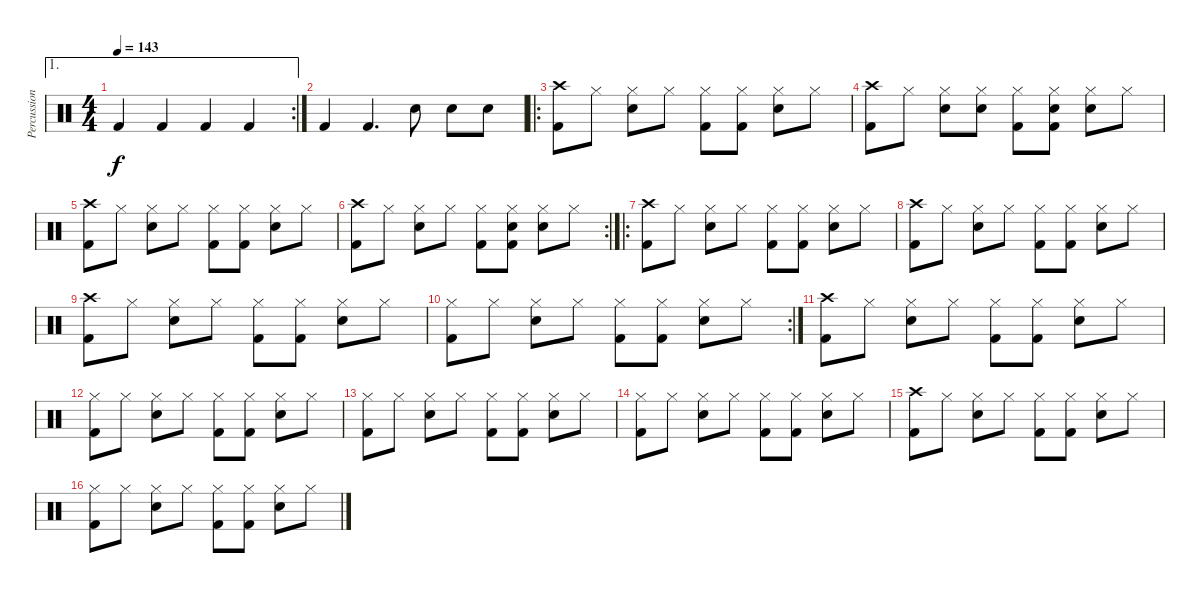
\track ("Percussion" "Percussion") {instrument percussion}
\staff {score}
\articulation defaults
\ae 1
\rc 2
\ts (4 4)
\tempo 143
\clef neutral
\ks c "Kick (hit) 2".4{dy f} "Kick (hit) 2".4 "Kick (hit) 2".4 "Kick (hit) 2".4
|
"Kick (hit) 2".4 "Kick (hit) 2".4{d} "Snare (hit) 2".8 "Snare (hit) 2".8 "Snare (hit) 2".8 |
\ro
("Crash high (hit)" "Kick (hit) 2").8 "Hi-Hat (closed)".8 ("Hi-Hat (closed)" "Snare (hit) 2").8 "Hi-Hat (closed)".8 ("Hi-Hat (closed)" "Kick (hit) 2").8 ("Hi-Hat (closed)" "Kick (hit) 2").8 ("Hi-Hat (closed)" "Snare (hit) 2").8 "Hi-Hat (closed)".8 |
("Crash high (hit)" "Kick (hit) 2").8 "Hi-Hat (closed)".8 ("Hi-Hat (closed)" "Snare (hit) 2").8 ("Hi-Hat (closed)" "Snare (hit) 2").8 ("Hi-Hat (closed)" "Kick (hit) 2").8 ("Hi-Hat (closed)" "Snare (hit) 2" "Kick (hit) 2").8 ("Hi-Hat (closed)" "Snare (hit) 2").8 "Hi-Hat (closed)".8 |
("Crash high (hit)" "Kick (hit) 2").8 "Hi-Hat (closed)".8 ("Hi-Hat (closed)" "Snare (hit) 2").8 "Hi-Hat (closed)".8 ("Hi-Hat (closed)" "Kick (hit) 2").8 ("Hi-Hat (closed)" "Kick (hit) 2").8 ("Hi-Hat (closed)" "Snare (hit) 2").8 "Hi-Hat (closed)".8 |
\rc 2
("Crash high (hit)" "Kick (hit) 2").8 "Hi-Hat (closed)".8 ("Hi-Hat (closed)" "Snare (hit) 2").8 "Hi-Hat (closed)".8 ("Hi-Hat (closed)" "Kick (hit) 2").8 ("Hi-Hat (closed)" "Snare (hit) 2" "Kick (hit) 2").8 ("Hi-Hat (closed)" "Snare (hit) 2").8 "Hi-Hat (closed)".8 |
\ro
("Crash high (hit)" "Kick (hit) 2").8 "Hi-Hat (closed)".8 ("Hi-Hat (closed)" "Snare (hit) 2").8 "Hi-Hat (closed)".8 ("Hi-Hat (closed)" "Kick (hit) 2").8 ("Hi-Hat (closed)" "Kick (hit) 2").8 ("Hi-Hat (closed)" "Snare (hit) 2").8 "Hi-Hat (closed)".8 |
("Crash high (hit)" "Kick (hit) 2").8 "Hi-Hat (closed)".8 ("Hi-Hat (closed)" "Snare (hit) 2").8 "Hi-Hat (closed)".8 ("Hi-Hat (closed)" "Kick (hit) 2").8 ("Hi-Hat (closed)" "Kick (hit) 2").8 ("Hi-Hat (closed)" "Snare (hit) 2").8 "Hi-Hat (closed)".8 |
("Crash high (hit)" "Kick (hit) 2").8 "Hi-Hat (closed)".8 ("Hi-Hat (closed)" "Snare (hit) 2").8 "Hi-Hat (closed)".8 ("Hi-Hat (closed)" "Kick (hit) 2").8 ("Hi-Hat (closed)" "Kick (hit) 2").8 ("Hi-Hat (closed)" "Snare (hit) 2").8 "Hi-Hat (closed)".8 |
\rc 2
("Hi-Hat (closed)" "Kick (hit) 2").8 "Hi-Hat (closed)".8 ("Hi-Hat (closed)" "Snare (hit) 2").8 "Hi-Hat (closed)".8 ("Hi-Hat (closed)" "Kick (hit) 2").8 ("Hi-Hat (closed)" "Kick (hit) 2").8 ("Hi-Hat (closed)" "Snare (hit) 2").8 "Hi-Hat (closed)".8 |
("Crash high (hit)" "Kick (hit) 2").8 "Hi-Hat (closed)".8 ("Hi-Hat (closed)" "Snare (hit) 2").8 "Hi-Hat (closed)".8 ("Hi-Hat (closed)" "Kick (hit) 2").8 ("Hi-Hat (closed)" "Kick (hit) 2").8 ("Hi-Hat (closed)" "Snare (hit) 2").8 "Hi-Hat (closed)".8 |
("Hi-Hat (closed)" "Kick (hit) 2").8 "Hi-Hat (closed)".8 ("Hi-Hat (closed)" "Snare (hit) 2").8 "Hi-Hat (closed)".8 ("Hi-Hat (closed)" "Kick (hit) 2").8 ("Hi-Hat (closed)" "Kick (hit) 2").8 ("Hi-Hat (closed)" "Snare (hit) 2").8 "Hi-Hat (closed)".8 |
("Hi-Hat (closed)" "Kick (hit) 2").8 "Hi-Hat (closed)".8 ("Hi-Hat (closed)" "Snare (hit) 2").8 "Hi-Hat (closed)".8 ("Hi-Hat (closed)" "Kick (hit) 2").8 ("Hi-Hat (closed)" "Kick (hit) 2").8 ("Hi-Hat (closed)" "Snare (hit) 2").8 "Hi-Hat (closed)".8 |
("Hi-Hat (closed)" "Kick (hit) 2").8 "Hi-Hat (closed)".8 ("Hi-Hat (closed)" "Snare (hit) 2").8 "Hi-Hat (closed)".8 ("Hi-Hat (closed)" "Kick (hit) 2").8 ("Hi-Hat (closed)" "Kick (hit) 2").8 ("Hi-Hat (closed)" "Snare (hit) 2").8 "Hi-Hat (closed)".8 |
("Crash high (hit)" "Kick (hit) 2").8 "Hi-Hat (closed)".8 ("Hi-Hat (closed)" "Snare (hit) 2").8 "Hi-Hat (closed)".8 ("Hi-Hat (closed)" "Kick (hit) 2").8 ("Hi-Hat (closed)" "Kick (hit) 2").8 ("Hi-Hat (closed)" "Snare (hit) 2").8 "Hi-Hat (closed)".8 |
("Hi-Hat (closed)" "Kick (hit) 2").8 "Hi-Hat (closed)".8 ("Hi-Hat (closed)" "Snare (hit) 2").8 "Hi-Hat (closed)".8 ("Hi-Hat (closed)" "Kick (hit) 2").8 ("Hi-Hat (closed)" "Kick (hit) 2").8 ("Hi-Hat (closed)" "Snare (hit) 2").8 "Hi-Hat (closed)".8
